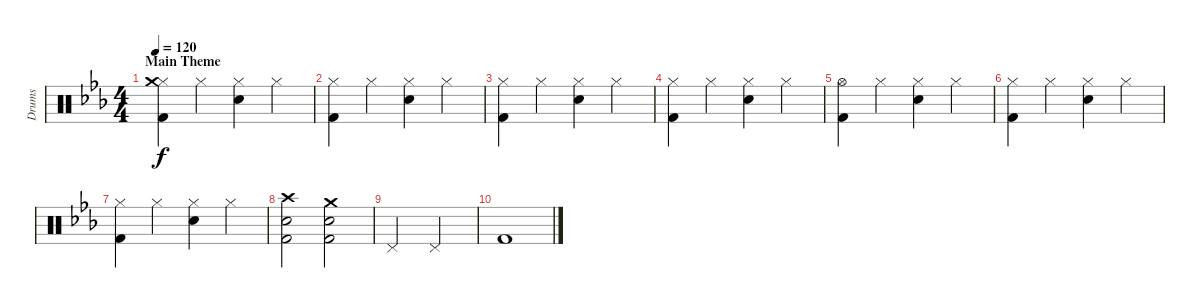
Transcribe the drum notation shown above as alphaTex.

\track ("Drums" "Drums") {instrument percussion}
\staff {score}
\articulation defaults
\ts (4 4)
\section ("" "Main Theme")
\tempo 120
\clef neutral
\ks cminor
("Hi-Hat (closed)" "Crash medium (hit)" "Kick (hit) 2").4{dy f} "Hi-Hat (closed)".4 ("Hi-Hat (closed)" "Snare (hit) 2").4 "Hi-Hat (closed)".4 |
("Hi-Hat (closed)" "Kick (hit) 2").4 "Hi-Hat (closed)".4 ("Hi-Hat (closed)" "Snare (hit) 2").4 "Hi-Hat (closed)".4 |
("Hi-Hat (closed)" "Kick (hit) 2").4 "Hi-Hat (closed)".4 ("Hi-Hat (closed)" "Snare (hit) 2").4 "Hi-Hat (closed)".4 |
("Hi-Hat (closed)" "Kick (hit) 2").4 "Hi-Hat (closed)".4 ("Hi-Hat (closed)" "Snare (hit) 2").4 "Hi-Hat (closed)".4 |
("Hi-Hat (open)" "Kick (hit) 2").4 "Hi-Hat (closed)".4 ("Hi-Hat (closed)" "Snare (hit) 2").4 "Hi-Hat (closed)".4 |
("Hi-Hat (closed)" "Kick (hit) 2").4 "Hi-Hat (closed)".4 ("Hi-Hat (closed)" "Snare (hit) 2").4 "Hi-Hat (closed)".4 |
("Hi-Hat (closed)" "Kick (hit) 2").4 "Hi-Hat (closed)".4 ("Hi-Hat (closed)" "Snare (hit) 2").4 "Hi-Hat (closed)".4 |
("Crash high (hit)" "Snare (hit) 2" "Kick (hit) 2").2 ("Crash medium (hit)" "Snare (hit) 2" "Kick (hit) 2").2 |
"Pedal Hi-Hat (hit)".2 "Pedal Hi-Hat (hit)".2 |
"Kick (hit) 2".1
